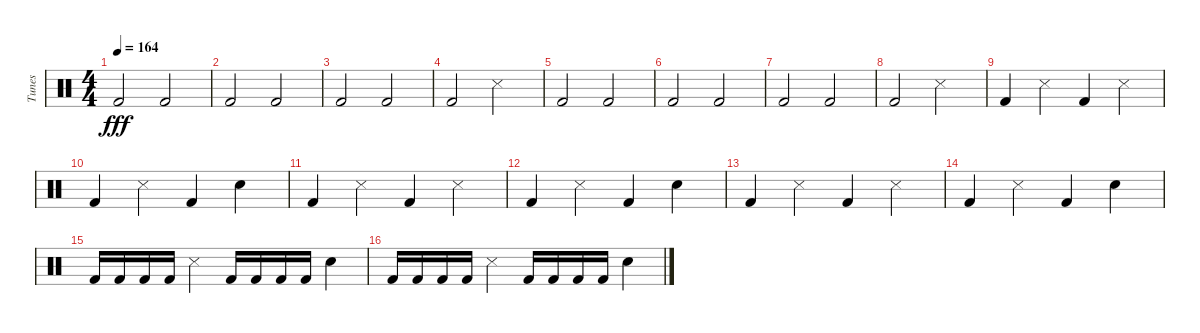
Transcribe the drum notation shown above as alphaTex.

\track ("Tunes" "Tunes") {instrument percussion}
\staff {score}
\articulation defaults
\ts (4 4)
\tempo 164
\clef neutral
\ks c "Kick (hit) 2".2{dy fff} "Kick (hit) 2".2
|
"Kick (hit) 2".2 "Kick (hit) 2".2 |
"Kick (hit) 2".2 "Kick (hit) 2".2 |
"Kick (hit) 2".2 "Snare (side stick) 3".2 |
"Kick (hit) 2".2 "Kick (hit) 2".2 |
"Kick (hit) 2".2 "Kick (hit) 2".2 |
"Kick (hit) 2".2 "Kick (hit) 2".2 |
"Kick (hit) 2".2 "Snare (side stick) 3".2 |
"Kick (hit) 2".4 "Snare (side stick) 3".4 "Kick (hit) 2".4 "Snare (side stick) 3".4 |
"Kick (hit) 2".4 "Snare (side stick) 3".4 "Kick (hit) 2".4 "Electric Snare (hit)".4 |
"Kick (hit) 2".4 "Snare (side stick) 3".4 "Kick (hit) 2".4 "Snare (side stick) 3".4 |
"Kick (hit) 2".4 "Snare (side stick) 3".4 "Kick (hit) 2".4 "Electric Snare (hit)".4 |
"Kick (hit) 2".4 "Snare (side stick) 3".4 "Kick (hit) 2".4 "Snare (side stick) 3".4 |
"Kick (hit) 2".4 "Snare (side stick) 3".4 "Kick (hit) 2".4 "Electric Snare (hit)".4 |
"Kick (hit) 2".16 "Kick (hit) 2".16 "Kick (hit) 2".16 "Kick (hit) 2".16 "Snare (side stick) 3".4 "Kick (hit) 2".16 "Kick (hit) 2".16 "Kick (hit) 2".16 "Kick (hit) 2".16 "Electric Snare (hit)".4 |
"Kick (hit) 2".16 "Kick (hit) 2".16 "Kick (hit) 2".16 "Kick (hit) 2".16 "Snare (side stick) 3".4 "Kick (hit) 2".16 "Kick (hit) 2".16 "Kick (hit) 2".16 "Kick (hit) 2".16 "Electric Snare (hit)".4
